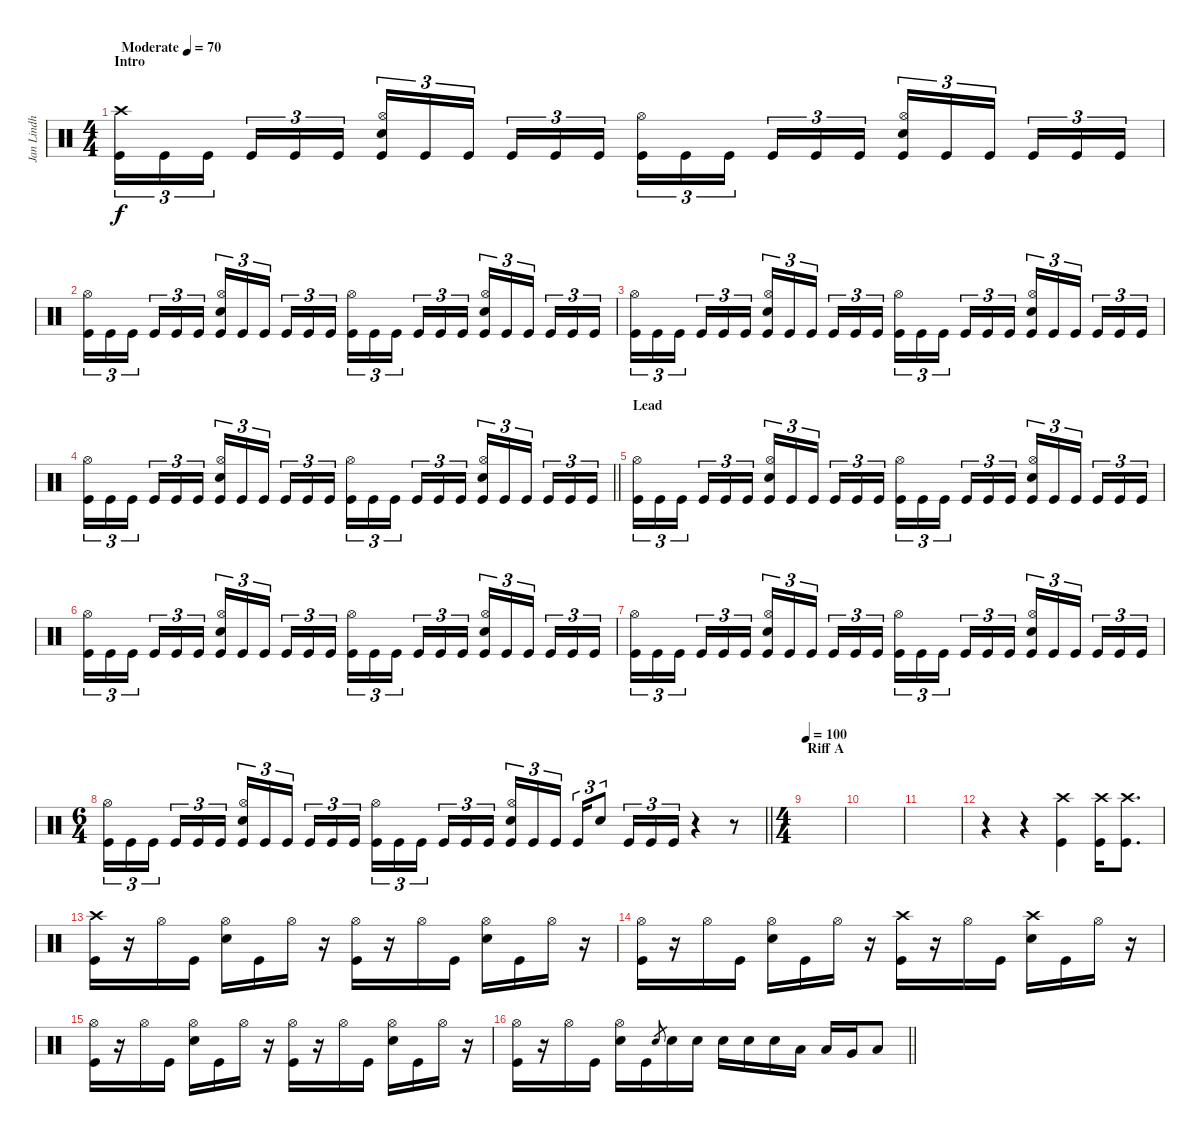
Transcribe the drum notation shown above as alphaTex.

\track ("Jan Lindh" "Jan Lindh") {instrument percussion}
\staff {score}
\articulation defaults
\ts (4 4)
\section ("" "Intro")
\tempo (70 "Moderate")
\clef neutral
\ks c
("Crash high (hit)" "Kick (hit)").16{tu (3 2) dy f} "Kick (hit)".16{tu (3 2)} "Kick (hit)".16{tu (3 2) beam splitsecondary} "Kick (hit)".16{tu (3 2)} "Kick (hit)".16{tu (3 2)} "Kick (hit)".16{tu (3 2)} ("Hi-Hat (open)" "Snare (hit) 2" "Kick (hit)").16{tu (3 2)} "Kick (hit)".16{tu (3 2)} "Kick (hit)".16{tu (3 2) beam splitsecondary} "Kick (hit)".16{tu (3 2)} "Kick (hit)".16{tu (3 2)} "Kick (hit)".16{tu (3 2)} ("Hi-Hat (open)" "Kick (hit)").16{tu (3 2)} "Kick (hit)".16{tu (3 2)} "Kick (hit)".16{tu (3 2) beam splitsecondary} "Kick (hit)".16{tu (3 2)} "Kick (hit)".16{tu (3 2)} "Kick (hit)".16{tu (3 2)} ("Hi-Hat (open)" "Snare (hit) 2" "Kick (hit)").16{tu (3 2)} "Kick (hit)".16{tu (3 2)} "Kick (hit)".16{tu (3 2) beam splitsecondary} "Kick (hit)".16{tu (3 2)} "Kick (hit)".16{tu (3 2)} "Kick (hit)".16{tu (3 2)} |
("Hi-Hat (open)" "Kick (hit)").16{tu (3 2)} "Kick (hit)".16{tu (3 2)} "Kick (hit)".16{tu (3 2) beam splitsecondary} "Kick (hit)".16{tu (3 2)} "Kick (hit)".16{tu (3 2)} "Kick (hit)".16{tu (3 2)} ("Hi-Hat (open)" "Snare (hit) 2" "Kick (hit)").16{tu (3 2)} "Kick (hit)".16{tu (3 2)} "Kick (hit)".16{tu (3 2) beam splitsecondary} "Kick (hit)".16{tu (3 2)} "Kick (hit)".16{tu (3 2)} "Kick (hit)".16{tu (3 2)} ("Hi-Hat (open)" "Kick (hit)").16{tu (3 2)} "Kick (hit)".16{tu (3 2)} "Kick (hit)".16{tu (3 2) beam splitsecondary} "Kick (hit)".16{tu (3 2)} "Kick (hit)".16{tu (3 2)} "Kick (hit)".16{tu (3 2)} ("Hi-Hat (open)" "Snare (hit) 2" "Kick (hit)").16{tu (3 2)} "Kick (hit)".16{tu (3 2)} "Kick (hit)".16{tu (3 2) beam splitsecondary} "Kick (hit)".16{tu (3 2)} "Kick (hit)".16{tu (3 2)} "Kick (hit)".16{tu (3 2)} |
("Hi-Hat (open)" "Kick (hit)").16{tu (3 2)} "Kick (hit)".16{tu (3 2)} "Kick (hit)".16{tu (3 2) beam splitsecondary} "Kick (hit)".16{tu (3 2)} "Kick (hit)".16{tu (3 2)} "Kick (hit)".16{tu (3 2)} ("Hi-Hat (open)" "Snare (hit) 2" "Kick (hit)").16{tu (3 2)} "Kick (hit)".16{tu (3 2)} "Kick (hit)".16{tu (3 2) beam splitsecondary} "Kick (hit)".16{tu (3 2)} "Kick (hit)".16{tu (3 2)} "Kick (hit)".16{tu (3 2)} ("Hi-Hat (open)" "Kick (hit)").16{tu (3 2)} "Kick (hit)".16{tu (3 2)} "Kick (hit)".16{tu (3 2) beam splitsecondary} "Kick (hit)".16{tu (3 2)} "Kick (hit)".16{tu (3 2)} "Kick (hit)".16{tu (3 2)} ("Hi-Hat (open)" "Snare (hit) 2" "Kick (hit)").16{tu (3 2)} "Kick (hit)".16{tu (3 2)} "Kick (hit)".16{tu (3 2) beam splitsecondary} "Kick (hit)".16{tu (3 2)} "Kick (hit)".16{tu (3 2)} "Kick (hit)".16{tu (3 2)} |
\barLineRight lightlight
("Hi-Hat (open)" "Kick (hit)").16{tu (3 2)} "Kick (hit)".16{tu (3 2)} "Kick (hit)".16{tu (3 2) beam splitsecondary} "Kick (hit)".16{tu (3 2)} "Kick (hit)".16{tu (3 2)} "Kick (hit)".16{tu (3 2)} ("Hi-Hat (open)" "Snare (hit) 2" "Kick (hit)").16{tu (3 2)} "Kick (hit)".16{tu (3 2)} "Kick (hit)".16{tu (3 2) beam splitsecondary} "Kick (hit)".16{tu (3 2)} "Kick (hit)".16{tu (3 2)} "Kick (hit)".16{tu (3 2)} ("Hi-Hat (open)" "Kick (hit)").16{tu (3 2)} "Kick (hit)".16{tu (3 2)} "Kick (hit)".16{tu (3 2) beam splitsecondary} "Kick (hit)".16{tu (3 2)} "Kick (hit)".16{tu (3 2)} "Kick (hit)".16{tu (3 2)} ("Hi-Hat (open)" "Snare (hit) 2" "Kick (hit)").16{tu (3 2)} "Kick (hit)".16{tu (3 2)} "Kick (hit)".16{tu (3 2) beam splitsecondary} "Kick (hit)".16{tu (3 2)} "Kick (hit)".16{tu (3 2)} "Kick (hit)".16{tu (3 2)} |
\section ("" "Lead")
("Hi-Hat (open)" "Kick (hit)").16{tu (3 2)} "Kick (hit)".16{tu (3 2)} "Kick (hit)".16{tu (3 2) beam splitsecondary} "Kick (hit)".16{tu (3 2)} "Kick (hit)".16{tu (3 2)} "Kick (hit)".16{tu (3 2)} ("Hi-Hat (open)" "Snare (hit) 2" "Kick (hit)").16{tu (3 2)} "Kick (hit)".16{tu (3 2)} "Kick (hit)".16{tu (3 2) beam splitsecondary} "Kick (hit)".16{tu (3 2)} "Kick (hit)".16{tu (3 2)} "Kick (hit)".16{tu (3 2)} ("Hi-Hat (open)" "Kick (hit)").16{tu (3 2)} "Kick (hit)".16{tu (3 2)} "Kick (hit)".16{tu (3 2) beam splitsecondary} "Kick (hit)".16{tu (3 2)} "Kick (hit)".16{tu (3 2)} "Kick (hit)".16{tu (3 2)} ("Hi-Hat (open)" "Snare (hit) 2" "Kick (hit)").16{tu (3 2)} "Kick (hit)".16{tu (3 2)} "Kick (hit)".16{tu (3 2) beam splitsecondary} "Kick (hit)".16{tu (3 2)} "Kick (hit)".16{tu (3 2)} "Kick (hit)".16{tu (3 2)} |
("Hi-Hat (open)" "Kick (hit)").16{tu (3 2)} "Kick (hit)".16{tu (3 2)} "Kick (hit)".16{tu (3 2) beam splitsecondary} "Kick (hit)".16{tu (3 2)} "Kick (hit)".16{tu (3 2)} "Kick (hit)".16{tu (3 2)} ("Hi-Hat (open)" "Snare (hit) 2" "Kick (hit)").16{tu (3 2)} "Kick (hit)".16{tu (3 2)} "Kick (hit)".16{tu (3 2) beam splitsecondary} "Kick (hit)".16{tu (3 2)} "Kick (hit)".16{tu (3 2)} "Kick (hit)".16{tu (3 2)} ("Hi-Hat (open)" "Kick (hit)").16{tu (3 2)} "Kick (hit)".16{tu (3 2)} "Kick (hit)".16{tu (3 2) beam splitsecondary} "Kick (hit)".16{tu (3 2)} "Kick (hit)".16{tu (3 2)} "Kick (hit)".16{tu (3 2)} ("Hi-Hat (open)" "Snare (hit) 2" "Kick (hit)").16{tu (3 2)} "Kick (hit)".16{tu (3 2)} "Kick (hit)".16{tu (3 2) beam splitsecondary} "Kick (hit)".16{tu (3 2)} "Kick (hit)".16{tu (3 2)} "Kick (hit)".16{tu (3 2)} |
("Hi-Hat (open)" "Kick (hit)").16{tu (3 2)} "Kick (hit)".16{tu (3 2)} "Kick (hit)".16{tu (3 2) beam splitsecondary} "Kick (hit)".16{tu (3 2)} "Kick (hit)".16{tu (3 2)} "Kick (hit)".16{tu (3 2)} ("Hi-Hat (open)" "Snare (hit) 2" "Kick (hit)").16{tu (3 2)} "Kick (hit)".16{tu (3 2)} "Kick (hit)".16{tu (3 2) beam splitsecondary} "Kick (hit)".16{tu (3 2)} "Kick (hit)".16{tu (3 2)} "Kick (hit)".16{tu (3 2)} ("Hi-Hat (open)" "Kick (hit)").16{tu (3 2)} "Kick (hit)".16{tu (3 2)} "Kick (hit)".16{tu (3 2) beam splitsecondary} "Kick (hit)".16{tu (3 2)} "Kick (hit)".16{tu (3 2)} "Kick (hit)".16{tu (3 2)} ("Hi-Hat (open)" "Snare (hit) 2" "Kick (hit)").16{tu (3 2)} "Kick (hit)".16{tu (3 2)} "Kick (hit)".16{tu (3 2) beam splitsecondary} "Kick (hit)".16{tu (3 2)} "Kick (hit)".16{tu (3 2)} "Kick (hit)".16{tu (3 2)} |
\ts (6 4)
\barLineRight lightlight
("Hi-Hat (open)" "Kick (hit)").16{tu (3 2)} "Kick (hit)".16{tu (3 2)} "Kick (hit)".16{tu (3 2) beam splitsecondary} "Kick (hit)".16{tu (3 2)} "Kick (hit)".16{tu (3 2)} "Kick (hit)".16{tu (3 2) beam splitsecondary} ("Hi-Hat (open)" "Snare (hit) 2" "Kick (hit)").16{tu (3 2)} "Kick (hit)".16{tu (3 2)} "Kick (hit)".16{tu (3 2) beam splitsecondary} "Kick (hit)".16{tu (3 2)} "Kick (hit)".16{tu (3 2)} "Kick (hit)".16{tu (3 2) beam splitsecondary} ("Hi-Hat (open)" "Kick (hit)").16{tu (3 2)} "Kick (hit)".16{tu (3 2)} "Kick (hit)".16{tu (3 2) beam splitsecondary} "Kick (hit)".16{tu (3 2)} "Kick (hit)".16{tu (3 2)} "Kick (hit)".16{tu (3 2)} ("Hi-Hat (open)" "Snare (hit) 2" "Kick (hit)").16{tu (3 2)} "Kick (hit)".16{tu (3 2)} "Kick (hit)".16{tu (3 2) beam splitsecondary} "Kick (hit)".16{tu (3 2)} "Snare (hit) 2".8{tu (3 2)} "Kick (hit)".16{tu (3 2)} "Kick (hit)".16{tu (3 2)} "Kick (hit)".16{tu (3 2)} r.4 r.8 |
\ts (4 4)
\section ("" "Riff A")
\tempo 100
|
|
|
r.4 r.4 ("Crash high (hit)" "Kick (hit)").4 ("Crash high (hit)" "Kick (hit)").16 ("Crash high (hit)" "Kick (hit)").8{d} |
("Crash high (hit)" "Kick (hit)").16 r.16 "Hi-Hat (open)".16 "Kick (hit)".16 ("Hi-Hat (open)" "Snare (hit) 2").16 "Kick (hit)".16 "Hi-Hat (open)".16 r.16 ("Hi-Hat (open)" "Kick (hit)").16 r.16 "Hi-Hat (open)".16 "Kick (hit)".16 ("Hi-Hat (open)" "Snare (hit) 2").16 "Kick (hit)".16 "Hi-Hat (open)".16 r.16 |
("Hi-Hat (open)" "Kick (hit)").16 r.16 "Hi-Hat (open)".16 "Kick (hit)".16 ("Hi-Hat (open)" "Snare (hit) 2").16 "Kick (hit)".16 "Hi-Hat (open)".16 r.16 ("Crash high (hit)" "Kick (hit)").16 r.16 "Hi-Hat (open)".16 "Kick (hit)".16 ("Crash high (hit)" "Snare (hit) 2").16 "Kick (hit)".16 "Hi-Hat (open)".16 r.16 |
("Hi-Hat (open)" "Kick (hit)").16 r.16 "Hi-Hat (open)".16 "Kick (hit)".16 ("Hi-Hat (open)" "Snare (hit) 2").16 "Kick (hit)".16 "Hi-Hat (open)".16 r.16 ("Hi-Hat (open)" "Kick (hit)").16 r.16 "Hi-Hat (open)".16 "Kick (hit)".16 ("Hi-Hat (open)" "Snare (hit) 2").16 "Kick (hit)".16 "Hi-Hat (open)".16 r.16 |
\barLineRight lightlight
("Hi-Hat (open)" "Kick (hit)").16 r.16 "Hi-Hat (open)".16 "Kick (hit)".16 ("Hi-Hat (open)" "Snare (hit) 2").16 "Kick (hit)".16 "Snare (hit) 2".8{gr} "Snare (hit) 2".16 "Snare (hit) 2".16 "Snare (hit) 2".16 "Snare (hit) 2".16 "Snare (hit) 2".16 "Low Tom (hit)".16 "Low Tom (hit)".16 "Very Low Tom (hit)".16 "Low Floor Tom (hit)".8
